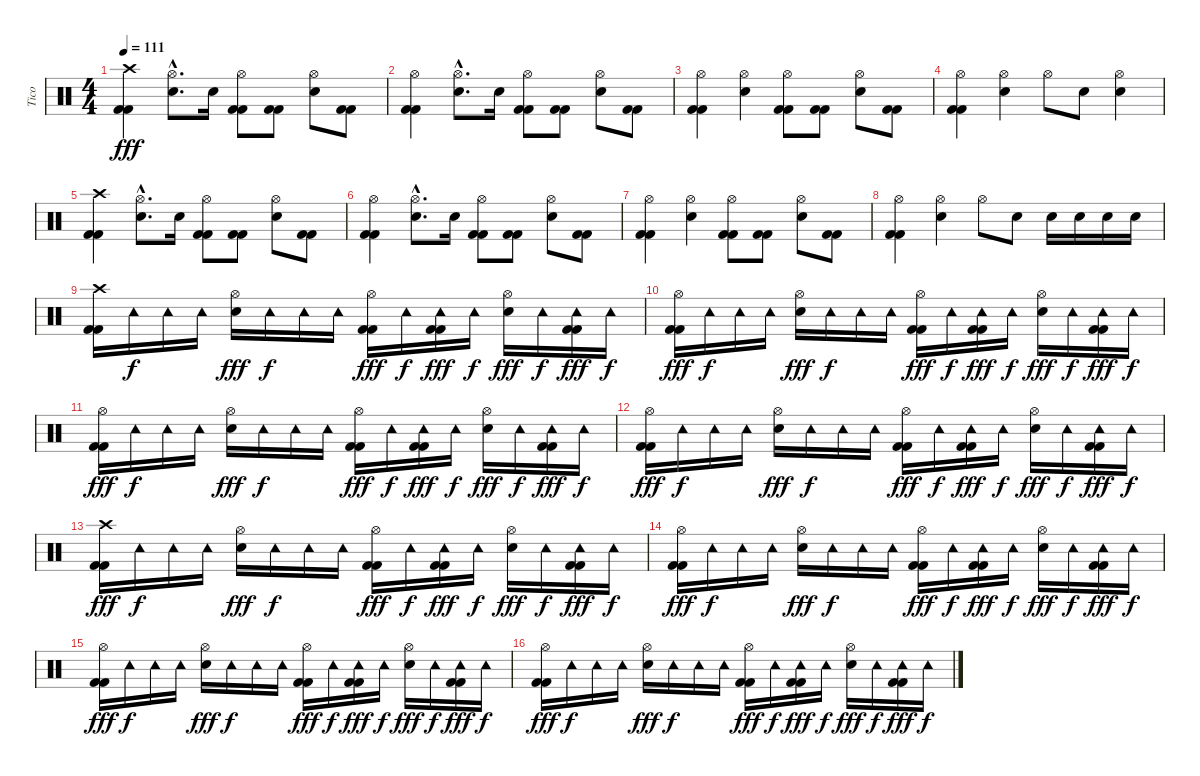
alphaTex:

\track ("Tico" "Tico") {instrument percussion}
\staff {score}
\articulation defaults
\ts (4 4)
\tempo 111
\clef neutral
\ks c
("Crash high (hit)" "Kick (hit) 2" "Kick (hit) 2").4{dy fff} ("Hi-Hat (open)"{hac} "Snare (hit) 2"{hac}).8{d} "Snare (hit) 2".16 ("Hi-Hat (open)" "Kick (hit) 2" "Kick (hit) 2").8 ("Kick (hit) 2" "Kick (hit) 2").8 ("Hi-Hat (open)" "Snare (hit) 2").8 ("Kick (hit) 2" "Kick (hit) 2").8 |
("Hi-Hat (open)" "Kick (hit) 2" "Kick (hit) 2").4 ("Hi-Hat (open)"{hac} "Snare (hit) 2"{hac}).8{d} "Snare (hit) 2".16 ("Hi-Hat (open)" "Kick (hit) 2" "Kick (hit) 2").8 ("Kick (hit) 2" "Kick (hit) 2").8 ("Hi-Hat (open)" "Snare (hit) 2").8 ("Kick (hit) 2" "Kick (hit) 2").8 |
("Hi-Hat (open)" "Kick (hit) 2" "Kick (hit) 2").4 ("Hi-Hat (open)" "Snare (hit) 2").4 ("Hi-Hat (open)" "Kick (hit) 2" "Kick (hit) 2").8 ("Kick (hit) 2" "Kick (hit) 2").8 ("Hi-Hat (open)" "Snare (hit) 2").8 ("Kick (hit) 2" "Kick (hit) 2").8 |
("Hi-Hat (open)" "Kick (hit) 2" "Kick (hit) 2").4 ("Hi-Hat (open)" "Snare (hit) 2").4 "Hi-Hat (open)".8 "Snare (hit) 2".8 ("Hi-Hat (open)" "Snare (hit) 2").4 |
("Crash high (hit)" "Kick (hit) 2" "Kick (hit) 2").4 ("Hi-Hat (open)"{hac} "Snare (hit) 2"{hac}).8{d} "Snare (hit) 2".16 ("Hi-Hat (open)" "Kick (hit) 2" "Kick (hit) 2").8 ("Kick (hit) 2" "Kick (hit) 2").8 ("Hi-Hat (open)" "Snare (hit) 2").8 ("Kick (hit) 2" "Kick (hit) 2").8 |
("Hi-Hat (open)" "Kick (hit) 2" "Kick (hit) 2").4 ("Hi-Hat (open)"{hac} "Snare (hit) 2"{hac}).8{d} "Snare (hit) 2".16 ("Hi-Hat (open)" "Kick (hit) 2" "Kick (hit) 2").8 ("Kick (hit) 2" "Kick (hit) 2").8 ("Hi-Hat (open)" "Snare (hit) 2").8 ("Kick (hit) 2" "Kick (hit) 2").8 |
("Hi-Hat (open)" "Kick (hit) 2" "Kick (hit) 2").4 ("Hi-Hat (open)" "Snare (hit) 2").4 ("Hi-Hat (open)" "Kick (hit) 2" "Kick (hit) 2").8 ("Kick (hit) 2" "Kick (hit) 2").8 ("Hi-Hat (open)" "Snare (hit) 2").8 ("Kick (hit) 2" "Kick (hit) 2").8 |
("Hi-Hat (open)" "Kick (hit) 2" "Kick (hit) 2").4 ("Hi-Hat (open)" "Snare (hit) 2").4 "Hi-Hat (open)".8 "Snare (hit) 2".8 "Snare (hit) 2".16 "Snare (hit) 2".16 "Snare (hit) 2".16 "Snare (hit) 2".16 |
("Crash high (hit)" "Kick (hit) 2" "Kick (hit) 2").16 "Tambourine (hit)".16{dy f} "Tambourine (hit)".16 "Tambourine (hit)".16 ("Hi-Hat (open)" "Snare (hit) 2").16{dy fff} "Tambourine (hit)".16{dy f} "Tambourine (hit)".16 "Tambourine (hit)".16 ("Hi-Hat (open)" "Kick (hit) 2" "Kick (hit) 2").16{dy fff} "Tambourine (hit)".16{dy f} ("Tambourine (hit)" "Kick (hit) 2" "Kick (hit) 2").16{dy fff} "Tambourine (hit)".16{dy f} ("Hi-Hat (open)" "Snare (hit) 2").16{dy fff} "Tambourine (hit)".16{dy f} ("Tambourine (hit)" "Kick (hit) 2" "Kick (hit) 2").16{dy fff} "Tambourine (hit)".16{dy f} |
("Hi-Hat (open)" "Kick (hit) 2" "Kick (hit) 2").16{dy fff} "Tambourine (hit)".16{dy f} "Tambourine (hit)".16 "Tambourine (hit)".16 ("Hi-Hat (open)" "Snare (hit) 2").16{dy fff} "Tambourine (hit)".16{dy f} "Tambourine (hit)".16 "Tambourine (hit)".16 ("Hi-Hat (open)" "Kick (hit) 2" "Kick (hit) 2").16{dy fff} "Tambourine (hit)".16{dy f} ("Tambourine (hit)" "Kick (hit) 2" "Kick (hit) 2").16{dy fff} "Tambourine (hit)".16{dy f} ("Hi-Hat (open)" "Snare (hit) 2").16{dy fff} "Tambourine (hit)".16{dy f} ("Tambourine (hit)" "Kick (hit) 2" "Kick (hit) 2").16{dy fff} "Tambourine (hit)".16{dy f} |
("Hi-Hat (open)" "Kick (hit) 2" "Kick (hit) 2").16{dy fff} "Tambourine (hit)".16{dy f} "Tambourine (hit)".16 "Tambourine (hit)".16 ("Hi-Hat (open)" "Snare (hit) 2").16{dy fff} "Tambourine (hit)".16{dy f} "Tambourine (hit)".16 "Tambourine (hit)".16 ("Hi-Hat (open)" "Kick (hit) 2" "Kick (hit) 2").16{dy fff} "Tambourine (hit)".16{dy f} ("Tambourine (hit)" "Kick (hit) 2" "Kick (hit) 2").16{dy fff} "Tambourine (hit)".16{dy f} ("Hi-Hat (open)" "Snare (hit) 2").16{dy fff} "Tambourine (hit)".16{dy f} ("Tambourine (hit)" "Kick (hit) 2" "Kick (hit) 2").16{dy fff} "Tambourine (hit)".16{dy f} |
("Hi-Hat (open)" "Kick (hit) 2" "Kick (hit) 2").16{dy fff} "Tambourine (hit)".16{dy f} "Tambourine (hit)".16 "Tambourine (hit)".16 ("Hi-Hat (open)" "Snare (hit) 2").16{dy fff} "Tambourine (hit)".16{dy f} "Tambourine (hit)".16 "Tambourine (hit)".16 ("Hi-Hat (open)" "Kick (hit) 2" "Kick (hit) 2").16{dy fff} "Tambourine (hit)".16{dy f} ("Tambourine (hit)" "Kick (hit) 2" "Kick (hit) 2").16{dy fff} "Tambourine (hit)".16{dy f} ("Hi-Hat (open)" "Snare (hit) 2").16{dy fff} "Tambourine (hit)".16{dy f} ("Tambourine (hit)" "Kick (hit) 2" "Kick (hit) 2").16{dy fff} "Tambourine (hit)".16{dy f} |
("Crash high (hit)" "Kick (hit) 2" "Kick (hit) 2").16{dy fff} "Tambourine (hit)".16{dy f} "Tambourine (hit)".16 "Tambourine (hit)".16 ("Hi-Hat (open)" "Snare (hit) 2").16{dy fff} "Tambourine (hit)".16{dy f} "Tambourine (hit)".16 "Tambourine (hit)".16 ("Hi-Hat (open)" "Kick (hit) 2" "Kick (hit) 2").16{dy fff} "Tambourine (hit)".16{dy f} ("Tambourine (hit)" "Kick (hit) 2" "Kick (hit) 2").16{dy fff} "Tambourine (hit)".16{dy f} ("Hi-Hat (open)" "Snare (hit) 2").16{dy fff} "Tambourine (hit)".16{dy f} ("Tambourine (hit)" "Kick (hit) 2" "Kick (hit) 2").16{dy fff} "Tambourine (hit)".16{dy f} |
("Hi-Hat (open)" "Kick (hit) 2" "Kick (hit) 2").16{dy fff} "Tambourine (hit)".16{dy f} "Tambourine (hit)".16 "Tambourine (hit)".16 ("Hi-Hat (open)" "Snare (hit) 2").16{dy fff} "Tambourine (hit)".16{dy f} "Tambourine (hit)".16 "Tambourine (hit)".16 ("Hi-Hat (open)" "Kick (hit) 2" "Kick (hit) 2").16{dy fff} "Tambourine (hit)".16{dy f} ("Tambourine (hit)" "Kick (hit) 2" "Kick (hit) 2").16{dy fff} "Tambourine (hit)".16{dy f} ("Hi-Hat (open)" "Snare (hit) 2").16{dy fff} "Tambourine (hit)".16{dy f} ("Tambourine (hit)" "Kick (hit) 2" "Kick (hit) 2").16{dy fff} "Tambourine (hit)".16{dy f} |
("Hi-Hat (open)" "Kick (hit) 2" "Kick (hit) 2").16{dy fff} "Tambourine (hit)".16{dy f} "Tambourine (hit)".16 "Tambourine (hit)".16 ("Hi-Hat (open)" "Snare (hit) 2").16{dy fff} "Tambourine (hit)".16{dy f} "Tambourine (hit)".16 "Tambourine (hit)".16 ("Hi-Hat (open)" "Kick (hit) 2" "Kick (hit) 2").16{dy fff} "Tambourine (hit)".16{dy f} ("Tambourine (hit)" "Kick (hit) 2" "Kick (hit) 2").16{dy fff} "Tambourine (hit)".16{dy f} ("Hi-Hat (open)" "Snare (hit) 2").16{dy fff} "Tambourine (hit)".16{dy f} ("Tambourine (hit)" "Kick (hit) 2" "Kick (hit) 2").16{dy fff} "Tambourine (hit)".16{dy f} |
("Hi-Hat (open)" "Kick (hit) 2" "Kick (hit) 2").16{dy fff} "Tambourine (hit)".16{dy f} "Tambourine (hit)".16 "Tambourine (hit)".16 ("Hi-Hat (open)" "Snare (hit) 2").16{dy fff} "Tambourine (hit)".16{dy f} "Tambourine (hit)".16 "Tambourine (hit)".16 ("Hi-Hat (open)" "Kick (hit) 2" "Kick (hit) 2").16{dy fff} "Tambourine (hit)".16{dy f} ("Tambourine (hit)" "Kick (hit) 2" "Kick (hit) 2").16{dy fff} "Tambourine (hit)".16{dy f} ("Hi-Hat (open)" "Snare (hit) 2").16{dy fff} "Tambourine (hit)".16{dy f} ("Tambourine (hit)" "Kick (hit) 2" "Kick (hit) 2").16{dy fff} "Tambourine (hit)".16{dy f}
